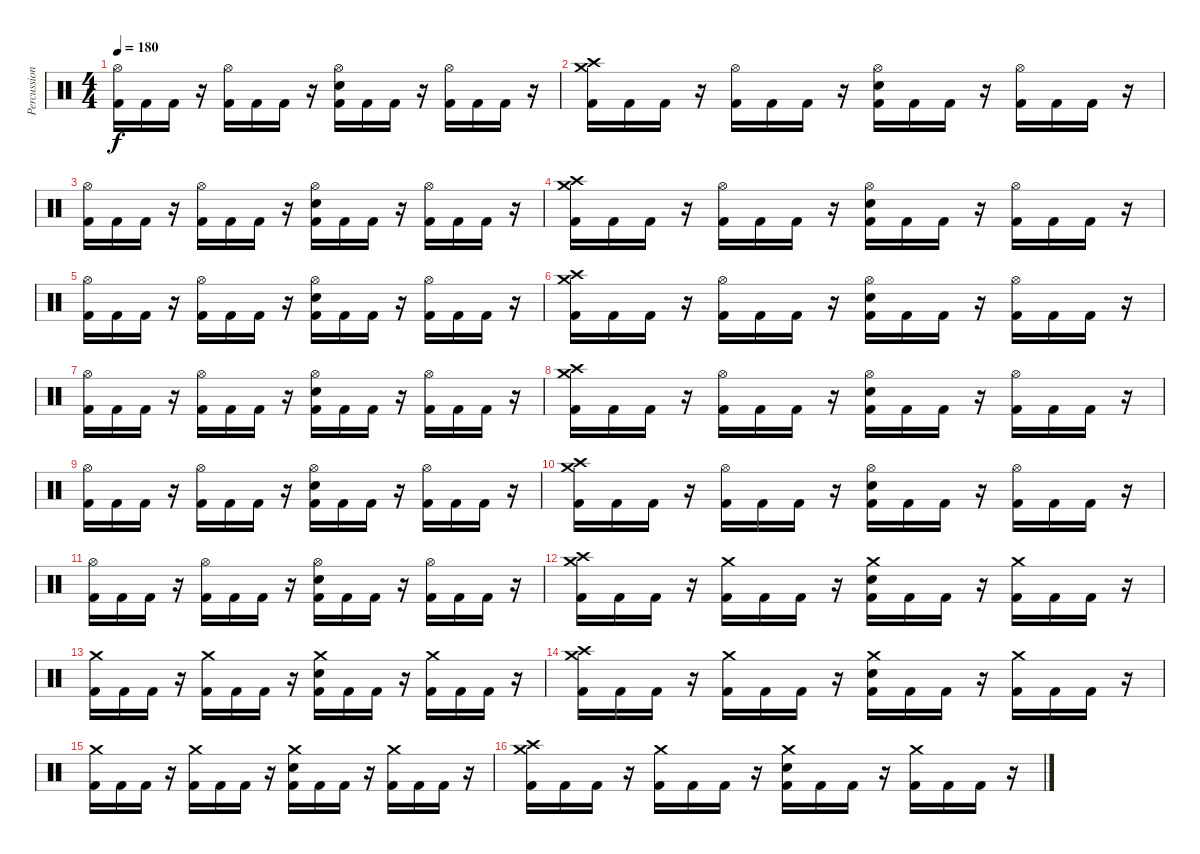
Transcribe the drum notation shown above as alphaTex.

\track ("Percussion" "Percussion") {instrument percussion}
\staff {score}
\articulation defaults
\ts (4 4)
\tempo 180
\clef neutral
\ks c
("Hi-Hat (open)" "Kick (hit) 2").16{dy f} "Kick (hit) 2".16 "Kick (hit) 2".16 r.16 ("Hi-Hat (open)" "Kick (hit) 2").16 "Kick (hit) 2".16 "Kick (hit) 2".16 r.16 ("Hi-Hat (open)" "Electric Snare (hit)" "Kick (hit) 2").16 "Kick (hit) 2".16 "Kick (hit) 2".16 r.16 ("Hi-Hat (open)" "Kick (hit) 2").16 "Kick (hit) 2".16 "Kick (hit) 2".16 r.16 |
("Crash medium (hit)" "Crash high (hit)" "Kick (hit) 2").16 "Kick (hit) 2".16 "Kick (hit) 2".16 r.16 ("Hi-Hat (open)" "Kick (hit) 2").16 "Kick (hit) 2".16 "Kick (hit) 2".16 r.16 ("Hi-Hat (open)" "Electric Snare (hit)" "Kick (hit) 2").16 "Kick (hit) 2".16 "Kick (hit) 2".16 r.16 ("Hi-Hat (open)" "Kick (hit) 2").16 "Kick (hit) 2".16 "Kick (hit) 2".16 r.16 |
("Hi-Hat (open)" "Kick (hit) 2").16 "Kick (hit) 2".16 "Kick (hit) 2".16 r.16 ("Hi-Hat (open)" "Kick (hit) 2").16 "Kick (hit) 2".16 "Kick (hit) 2".16 r.16 ("Hi-Hat (open)" "Electric Snare (hit)" "Kick (hit) 2").16 "Kick (hit) 2".16 "Kick (hit) 2".16 r.16 ("Hi-Hat (open)" "Kick (hit) 2").16 "Kick (hit) 2".16 "Kick (hit) 2".16 r.16 |
("Crash medium (hit)" "Crash high (hit)" "Kick (hit) 2").16 "Kick (hit) 2".16 "Kick (hit) 2".16 r.16 ("Hi-Hat (open)" "Kick (hit) 2").16 "Kick (hit) 2".16 "Kick (hit) 2".16 r.16 ("Hi-Hat (open)" "Electric Snare (hit)" "Kick (hit) 2").16 "Kick (hit) 2".16 "Kick (hit) 2".16 r.16 ("Hi-Hat (open)" "Kick (hit) 2").16 "Kick (hit) 2".16 "Kick (hit) 2".16 r.16 |
("Hi-Hat (open)" "Kick (hit) 2").16 "Kick (hit) 2".16 "Kick (hit) 2".16 r.16 ("Hi-Hat (open)" "Kick (hit) 2").16 "Kick (hit) 2".16 "Kick (hit) 2".16 r.16 ("Hi-Hat (open)" "Electric Snare (hit)" "Kick (hit) 2").16 "Kick (hit) 2".16 "Kick (hit) 2".16 r.16 ("Hi-Hat (open)" "Kick (hit) 2").16 "Kick (hit) 2".16 "Kick (hit) 2".16 r.16 |
("Crash medium (hit)" "Crash high (hit)" "Kick (hit) 2").16 "Kick (hit) 2".16 "Kick (hit) 2".16 r.16 ("Hi-Hat (open)" "Kick (hit) 2").16 "Kick (hit) 2".16 "Kick (hit) 2".16 r.16 ("Hi-Hat (open)" "Electric Snare (hit)" "Kick (hit) 2").16 "Kick (hit) 2".16 "Kick (hit) 2".16 r.16 ("Hi-Hat (open)" "Kick (hit) 2").16 "Kick (hit) 2".16 "Kick (hit) 2".16 r.16 |
("Hi-Hat (open)" "Kick (hit) 2").16 "Kick (hit) 2".16 "Kick (hit) 2".16 r.16 ("Hi-Hat (open)" "Kick (hit) 2").16 "Kick (hit) 2".16 "Kick (hit) 2".16 r.16 ("Hi-Hat (open)" "Electric Snare (hit)" "Kick (hit) 2").16 "Kick (hit) 2".16 "Kick (hit) 2".16 r.16 ("Hi-Hat (open)" "Kick (hit) 2").16 "Kick (hit) 2".16 "Kick (hit) 2".16 r.16 |
("Crash medium (hit)" "Crash high (hit)" "Kick (hit) 2").16 "Kick (hit) 2".16 "Kick (hit) 2".16 r.16 ("Hi-Hat (open)" "Kick (hit) 2").16 "Kick (hit) 2".16 "Kick (hit) 2".16 r.16 ("Hi-Hat (open)" "Electric Snare (hit)" "Kick (hit) 2").16 "Kick (hit) 2".16 "Kick (hit) 2".16 r.16 ("Hi-Hat (open)" "Kick (hit) 2").16 "Kick (hit) 2".16 "Kick (hit) 2".16 r.16 |
("Hi-Hat (open)" "Kick (hit) 2").16 "Kick (hit) 2".16 "Kick (hit) 2".16 r.16 ("Hi-Hat (open)" "Kick (hit) 2").16 "Kick (hit) 2".16 "Kick (hit) 2".16 r.16 ("Hi-Hat (open)" "Electric Snare (hit)" "Kick (hit) 2").16 "Kick (hit) 2".16 "Kick (hit) 2".16 r.16 ("Hi-Hat (open)" "Kick (hit) 2").16 "Kick (hit) 2".16 "Kick (hit) 2".16 r.16 |
("Crash medium (hit)" "Crash high (hit)" "Kick (hit) 2").16 "Kick (hit) 2".16 "Kick (hit) 2".16 r.16 ("Hi-Hat (open)" "Kick (hit) 2").16 "Kick (hit) 2".16 "Kick (hit) 2".16 r.16 ("Hi-Hat (open)" "Electric Snare (hit)" "Kick (hit) 2").16 "Kick (hit) 2".16 "Kick (hit) 2".16 r.16 ("Hi-Hat (open)" "Kick (hit) 2").16 "Kick (hit) 2".16 "Kick (hit) 2".16 r.16 |
("Hi-Hat (open)" "Kick (hit) 2").16 "Kick (hit) 2".16 "Kick (hit) 2".16 r.16 ("Hi-Hat (open)" "Kick (hit) 2").16 "Kick (hit) 2".16 "Kick (hit) 2".16 r.16 ("Hi-Hat (open)" "Electric Snare (hit)" "Kick (hit) 2").16 "Kick (hit) 2".16 "Kick (hit) 2".16 r.16 ("Hi-Hat (open)" "Kick (hit) 2").16 "Kick (hit) 2".16 "Kick (hit) 2".16 r.16 |
("Crash medium (hit)" "Crash high (hit)" "Kick (hit) 2").16 "Kick (hit) 2".16 "Kick (hit) 2".16 r.16 ("Crash medium (hit)" "Kick (hit) 2").16 "Kick (hit) 2".16 "Kick (hit) 2".16 r.16 ("Crash medium (hit)" "Electric Snare (hit)" "Kick (hit) 2").16 "Kick (hit) 2".16 "Kick (hit) 2".16 r.16 ("Crash medium (hit)" "Kick (hit) 2").16 "Kick (hit) 2".16 "Kick (hit) 2".16 r.16 |
("Crash medium (hit)" "Kick (hit) 2").16 "Kick (hit) 2".16 "Kick (hit) 2".16 r.16 ("Crash medium (hit)" "Kick (hit) 2").16 "Kick (hit) 2".16 "Kick (hit) 2".16 r.16 ("Crash medium (hit)" "Electric Snare (hit)" "Kick (hit) 2").16 "Kick (hit) 2".16 "Kick (hit) 2".16 r.16 ("Crash medium (hit)" "Kick (hit) 2").16 "Kick (hit) 2".16 "Kick (hit) 2".16 r.16 |
("Crash medium (hit)" "Crash high (hit)" "Kick (hit) 2").16 "Kick (hit) 2".16 "Kick (hit) 2".16 r.16 ("Crash medium (hit)" "Kick (hit) 2").16 "Kick (hit) 2".16 "Kick (hit) 2".16 r.16 ("Crash medium (hit)" "Electric Snare (hit)" "Kick (hit) 2").16 "Kick (hit) 2".16 "Kick (hit) 2".16 r.16 ("Crash medium (hit)" "Kick (hit) 2").16 "Kick (hit) 2".16 "Kick (hit) 2".16 r.16 |
("Crash medium (hit)" "Kick (hit) 2").16 "Kick (hit) 2".16 "Kick (hit) 2".16 r.16 ("Crash medium (hit)" "Kick (hit) 2").16 "Kick (hit) 2".16 "Kick (hit) 2".16 r.16 ("Crash medium (hit)" "Electric Snare (hit)" "Kick (hit) 2").16 "Kick (hit) 2".16 "Kick (hit) 2".16 r.16 ("Crash medium (hit)" "Kick (hit) 2").16 "Kick (hit) 2".16 "Kick (hit) 2".16 r.16 |
("Crash medium (hit)" "Crash high (hit)" "Kick (hit) 2").16 "Kick (hit) 2".16 "Kick (hit) 2".16 r.16 ("Crash medium (hit)" "Kick (hit) 2").16 "Kick (hit) 2".16 "Kick (hit) 2".16 r.16 ("Crash medium (hit)" "Electric Snare (hit)" "Kick (hit) 2").16 "Kick (hit) 2".16 "Kick (hit) 2".16 r.16 ("Crash medium (hit)" "Kick (hit) 2").16 "Kick (hit) 2".16 "Kick (hit) 2".16 r.16
